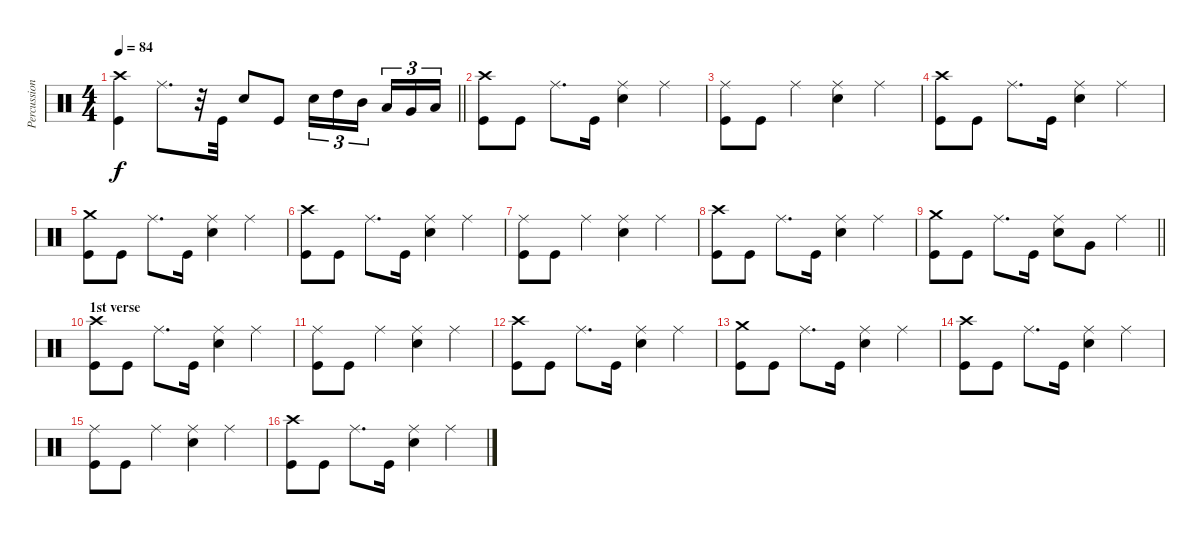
\track ("Percussions" "Percussion") {instrument percussion}
\staff {score}
\articulation defaults
\ts (4 4)
\tempo 84
\clef neutral
\barLineRight lightlight
\ks c
("Crash high (hit)" "Kick (hit)").4{dy f} "Ride (middle)".8{d} r.32 "Kick (hit)".32 "Electric Snare (hit)".8 "Kick (hit)".8 "Electric Snare (hit)".16{tu (3 2)} "High Tom (hit)".16{tu (3 2)} "Mid Tom (hit)".16{tu (3 2) beam splitsecondary} "Low Tom (hit)".16{tu (3 2)} "Very Low Tom (hit)".16{tu (3 2)} "Low Floor Tom (hit)".16{tu (3 2)} |
\section ("" "")
("Crash high (hit)" "Kick (hit)").8 "Kick (hit)".8 "Ride (middle)".8{d} "Kick (hit)".16 ("Electric Snare (hit)" "Ride (middle)").4 "Ride (middle)".4 |
("Ride (middle)" "Kick (hit)").8 "Kick (hit)".8 "Ride (middle)".4 ("Electric Snare (hit)" "Ride (middle)").4 "Ride (middle)".4 |
("Crash high (hit)" "Kick (hit)").8 "Kick (hit)".8 "Ride (middle)".8{d} "Kick (hit)".16 ("Electric Snare (hit)" "Ride (middle)").4 "Ride (middle)".4 |
("Crash medium (hit)" "Kick (hit)").8 "Kick (hit)".8 "Ride (middle)".8{d} "Kick (hit)".16 ("Electric Snare (hit)" "Ride (middle)").4 "Ride (middle)".4 |
("Crash high (hit)" "Kick (hit)").8 "Kick (hit)".8 "Ride (middle)".8{d} "Kick (hit)".16 ("Electric Snare (hit)" "Ride (middle)").4 "Ride (middle)".4 |
("Ride (middle)" "Kick (hit)").8 "Kick (hit)".8 "Ride (middle)".4 ("Electric Snare (hit)" "Ride (middle)").4 "Ride (middle)".4 |
("Crash high (hit)" "Kick (hit)").8 "Kick (hit)".8 "Ride (middle)".8{d} "Kick (hit)".16 ("Electric Snare (hit)" "Ride (middle)").4 "Ride (middle)".4 |
\barLineRight lightlight
("Crash medium (hit)" "Kick (hit)").8 "Kick (hit)".8 "Ride (middle)".8{d} "Kick (hit)".16 ("Electric Snare (hit)" "Ride (middle)").8 "Very Low Tom (hit)".8 "Ride (middle)".4 |
\section ("" "1st verse")
("Crash high (hit)" "Kick (hit)").8 "Kick (hit)".8 "Ride (middle)".8{d} "Kick (hit)".16 ("Electric Snare (hit)" "Ride (middle)").4 "Ride (middle)".4 |
("Ride (middle)" "Kick (hit)").8 "Kick (hit)".8 "Ride (middle)".4 ("Electric Snare (hit)" "Ride (middle)").4 "Ride (middle)".4 |
("Crash high (hit)" "Kick (hit)").8 "Kick (hit)".8 "Ride (middle)".8{d} "Kick (hit)".16 ("Electric Snare (hit)" "Ride (middle)").4 "Ride (middle)".4 |
("Crash medium (hit)" "Kick (hit)").8 "Kick (hit)".8 "Ride (middle)".8{d} "Kick (hit)".16 ("Electric Snare (hit)" "Ride (middle)").4 "Ride (middle)".4 |
("Crash high (hit)" "Kick (hit)").8 "Kick (hit)".8 "Ride (middle)".8{d} "Kick (hit)".16 ("Electric Snare (hit)" "Ride (middle)").4 "Ride (middle)".4 |
("Ride (middle)" "Kick (hit)").8 "Kick (hit)".8 "Ride (middle)".4 ("Electric Snare (hit)" "Ride (middle)").4 "Ride (middle)".4 |
("Crash high (hit)" "Kick (hit)").8 "Kick (hit)".8 "Ride (middle)".8{d} "Kick (hit)".16 ("Electric Snare (hit)" "Ride (middle)").4 "Ride (middle)".4
